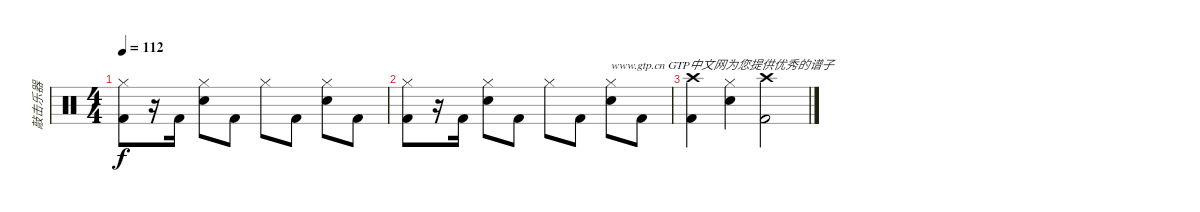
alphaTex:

\track ("敲击乐器" "敲击乐器") {instrument percussion}
\staff {score}
\articulation defaults
\ts (4 4)
\tempo 112
\clef neutral
\ks c
("Hi-Hat (closed)" "Kick (hit) 2").8{dy f} r.16 "Kick (hit) 2".16 ("Hi-Hat (closed)" "Electric Snare (hit)").8 "Kick (hit) 2".8 "Hi-Hat (closed)".8 "Kick (hit) 2".8 ("Hi-Hat (closed)" "Electric Snare (hit)").8 "Kick (hit) 2".8 |
("Hi-Hat (closed)" "Kick (hit) 2").8 r.16 "Kick (hit) 2".16 ("Hi-Hat (closed)" "Electric Snare (hit)").8 "Kick (hit) 2".8 "Hi-Hat (closed)".8 "Kick (hit) 2".8 ("Hi-Hat (closed)" "Electric Snare (hit)").8{txt "www.gtp.cn GTP中文网为您提供优秀的谱子"} "Kick (hit) 2".8 |
("Crash high (hit)" "Kick (hit) 2").4 ("Hi-Hat (closed)" "Snare (hit) 2").4 ("Crash high (hit)" "Kick (hit) 2").2
